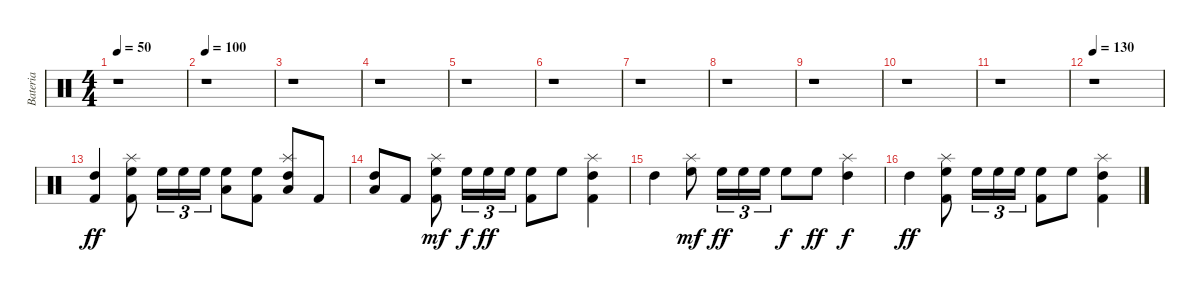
\track ("Bateria" "Bateria") {instrument percussion}
\staff {score}
\articulation defaults
\ts (4 4)
\tempo 50
\clef neutral
\ks c
r.1{dy ff} |
\tempo 100
r.1 |
r.1 |
r.1 |
r.1 |
r.1 |
r.1 |
r.1 |
r.1 |
r.1 |
r.1 |
\tempo 130
r.1 |
("Kick (hit) 2" "High Tom (hit)").4 ("Kick (hit) 2" "High Floor Tom (hit)" "Splash (hit)").8 "High Floor Tom (hit)".16{tu (3 2)} "High Floor Tom (hit)".16{tu (3 2)} "High Floor Tom (hit)".16{tu (3 2)} ("Low Floor Tom (hit)" "High Floor Tom (hit)").8 ("Kick (hit) 2" "High Floor Tom (hit)").8 ("Low Floor Tom (hit)" "High Tom (hit)" "Splash (hit)").8 "Kick (hit) 2".8 |
("Low Floor Tom (hit)" "High Tom (hit)").8 "Kick (hit) 2".8 ("Kick (hit) 2" "High Floor Tom (hit)" "Splash (hit)").8{dy mf} "High Floor Tom (hit)".16{tu (3 2) dy f} "High Floor Tom (hit)".16{tu (3 2) dy ff} "High Floor Tom (hit)".16{tu (3 2)} ("Kick (hit) 2" "High Floor Tom (hit)").8 "High Floor Tom (hit)".8 ("Kick (hit) 2" "High Tom (hit)" "Splash (hit)").4 |
"High Tom (hit)".4 ("High Floor Tom (hit)" "Splash (hit)").8{dy mf} "High Floor Tom (hit)".16{tu (3 2) dy ff} "High Floor Tom (hit)".16{tu (3 2)} "High Floor Tom (hit)".16{tu (3 2)} "High Floor Tom (hit)".8{dy f} "High Floor Tom (hit)".8{dy ff} ("High Tom (hit)" "Splash (hit)").4{dy f} |
"High Tom (hit)".4{dy ff} ("High Floor Tom (hit)" "Splash (hit)" "Kick (hit) 2").8 "High Floor Tom (hit)".16{tu (3 2)} "High Floor Tom (hit)".16{tu (3 2)} "High Floor Tom (hit)".16{tu (3 2)} ("High Floor Tom (hit)" "Kick (hit) 2").8 "High Floor Tom (hit)".8 ("High Tom (hit)" "Splash (hit)" "Kick (hit) 2").4
